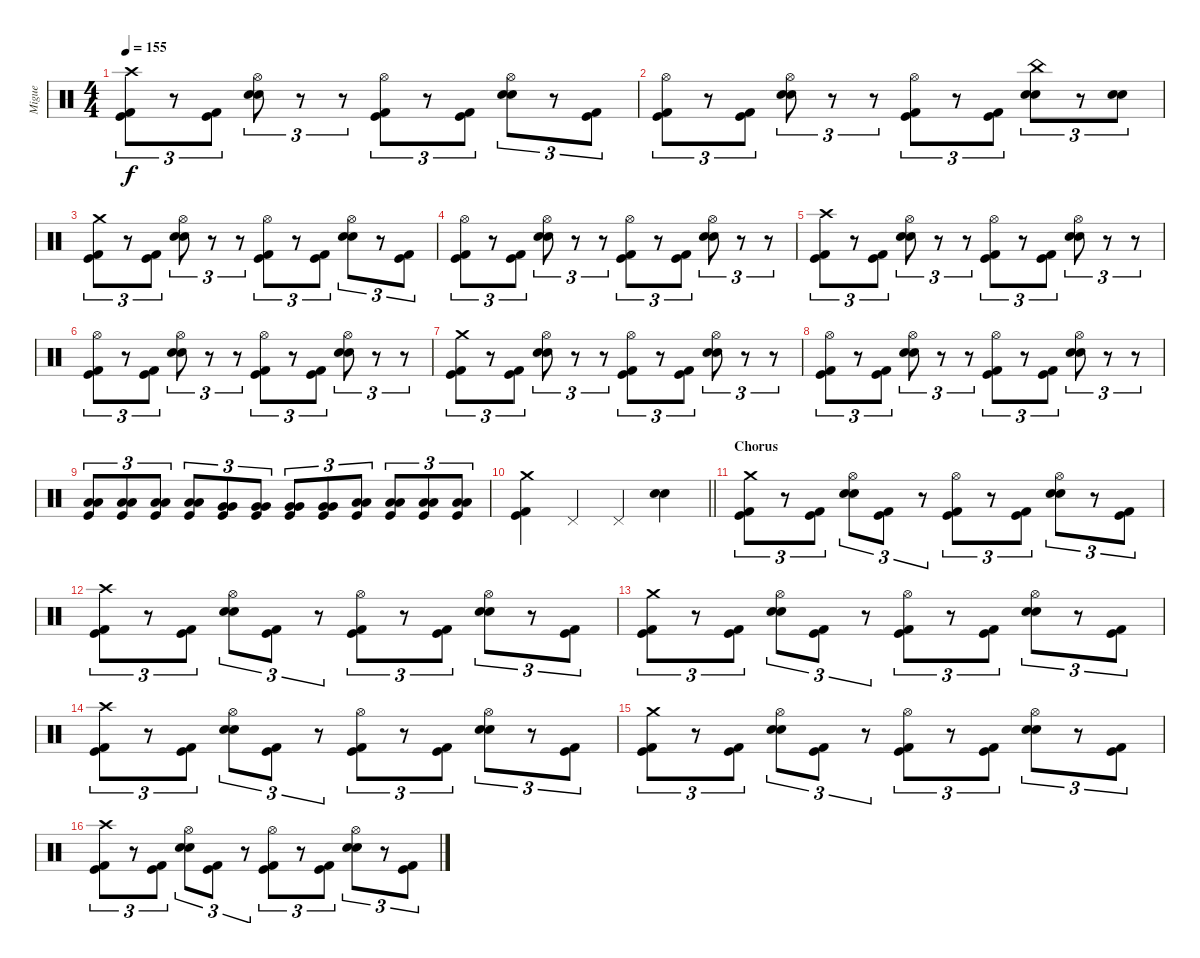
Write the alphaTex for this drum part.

\track ("Migue" "Migue") {instrument percussion}
\staff {score}
\articulation defaults
\ts (4 4)
\tempo 155
\clef neutral
\ks c
("Crash high (hit)" "Kick (hit) 2" "Kick (hit)").8{tu (3 2) dy f} r.8{tu (3 2)} ("Kick (hit) 2" "Kick (hit)").8{tu (3 2)} ("Hi-Hat (open)" "Snare (hit) 2" "Snare (hit) 2").8{tu (3 2)} r.8{tu (3 2)} r.8{tu (3 2)} ("Hi-Hat (open)" "Kick (hit) 2" "Kick (hit)").8{tu (3 2)} r.8{tu (3 2)} ("Kick (hit) 2" "Kick (hit)").8{tu (3 2)} ("Hi-Hat (open)" "Snare (hit) 2" "Snare (hit) 2").8{tu (3 2)} r.8{tu (3 2)} ("Kick (hit) 2" "Kick (hit)").8{tu (3 2)} |
("Hi-Hat (open)" "Kick (hit) 2" "Kick (hit)").8{tu (3 2)} r.8{tu (3 2)} ("Kick (hit) 2" "Kick (hit)").8{tu (3 2)} ("Hi-Hat (open)" "Snare (hit) 2" "Snare (hit) 2").8{tu (3 2)} r.8{tu (3 2)} r.8{tu (3 2)} ("Hi-Hat (open)" "Kick (hit) 2" "Kick (hit)").8{tu (3 2)} r.8{tu (3 2)} ("Kick (hit) 2" "Kick (hit)").8{tu (3 2)} ("China (hit)" "Snare (hit) 2" "Snare (hit) 2").8{tu (3 2)} r.8{tu (3 2)} ("Snare (hit) 2" "Snare (hit) 2").8{tu (3 2)} |
("Crash medium (hit)" "Kick (hit) 2" "Kick (hit)").8{tu (3 2)} r.8{tu (3 2)} ("Kick (hit) 2" "Kick (hit)").8{tu (3 2)} ("Hi-Hat (open)" "Snare (hit) 2" "Snare (hit) 2").8{tu (3 2)} r.8{tu (3 2)} r.8{tu (3 2)} ("Hi-Hat (open)" "Kick (hit) 2" "Kick (hit)").8{tu (3 2)} r.8{tu (3 2)} ("Kick (hit) 2" "Kick (hit)").8{tu (3 2)} ("Hi-Hat (open)" "Snare (hit) 2" "Snare (hit) 2").8{tu (3 2)} r.8{tu (3 2)} ("Kick (hit) 2" "Kick (hit)").8{tu (3 2)} |
("Hi-Hat (open)" "Kick (hit) 2" "Kick (hit)").8{tu (3 2)} r.8{tu (3 2)} ("Kick (hit) 2" "Kick (hit)").8{tu (3 2)} ("Hi-Hat (open)" "Snare (hit) 2" "Snare (hit) 2").8{tu (3 2)} r.8{tu (3 2)} r.8{tu (3 2)} ("Hi-Hat (open)" "Kick (hit) 2" "Kick (hit)").8{tu (3 2)} r.8{tu (3 2)} ("Kick (hit) 2" "Kick (hit)").8{tu (3 2)} ("Hi-Hat (open)" "Snare (hit) 2" "Snare (hit) 2").8{tu (3 2)} r.8{tu (3 2)} r.8{tu (3 2)} |
("Crash high (hit)" "Kick (hit) 2" "Kick (hit)").8{tu (3 2)} r.8{tu (3 2)} ("Kick (hit) 2" "Kick (hit)").8{tu (3 2)} ("Hi-Hat (open)" "Snare (hit) 2" "Snare (hit) 2").8{tu (3 2)} r.8{tu (3 2)} r.8{tu (3 2)} ("Hi-Hat (open)" "Kick (hit) 2" "Kick (hit)").8{tu (3 2)} r.8{tu (3 2)} ("Kick (hit) 2" "Kick (hit)").8{tu (3 2)} ("Hi-Hat (open)" "Snare (hit) 2" "Snare (hit) 2").8{tu (3 2)} r.8{tu (3 2)} r.8{tu (3 2)} |
("Hi-Hat (open)" "Kick (hit) 2" "Kick (hit)").8{tu (3 2)} r.8{tu (3 2)} ("Kick (hit) 2" "Kick (hit)").8{tu (3 2)} ("Hi-Hat (open)" "Snare (hit) 2" "Snare (hit) 2").8{tu (3 2)} r.8{tu (3 2)} r.8{tu (3 2)} ("Hi-Hat (open)" "Kick (hit) 2" "Kick (hit)").8{tu (3 2)} r.8{tu (3 2)} ("Kick (hit) 2" "Kick (hit)").8{tu (3 2)} ("Hi-Hat (open)" "Snare (hit) 2" "Snare (hit) 2").8{tu (3 2)} r.8{tu (3 2)} r.8{tu (3 2)} |
("Crash medium (hit)" "Kick (hit) 2" "Kick (hit)").8{tu (3 2)} r.8{tu (3 2)} ("Kick (hit) 2" "Kick (hit)").8{tu (3 2)} ("Hi-Hat (open)" "Snare (hit) 2" "Snare (hit) 2").8{tu (3 2)} r.8{tu (3 2)} r.8{tu (3 2)} ("Hi-Hat (open)" "Kick (hit) 2" "Kick (hit)").8{tu (3 2)} r.8{tu (3 2)} ("Kick (hit) 2" "Kick (hit)").8{tu (3 2)} ("Hi-Hat (open)" "Snare (hit) 2" "Snare (hit) 2").8{tu (3 2)} r.8{tu (3 2)} r.8{tu (3 2)} |
("Hi-Hat (open)" "Kick (hit) 2" "Kick (hit)").8{tu (3 2)} r.8{tu (3 2)} ("Kick (hit) 2" "Kick (hit)").8{tu (3 2)} ("Hi-Hat (open)" "Snare (hit) 2" "Snare (hit) 2").8{tu (3 2)} r.8{tu (3 2)} r.8{tu (3 2)} ("Hi-Hat (open)" "Kick (hit) 2" "Kick (hit)").8{tu (3 2)} r.8{tu (3 2)} ("Kick (hit) 2" "Kick (hit)").8{tu (3 2)} ("Hi-Hat (open)" "Snare (hit) 2" "Snare (hit) 2").8{tu (3 2)} r.8{tu (3 2)} r.8{tu (3 2)} |
("Low Tom (hit)" "Low Tom (hit)" "Kick (hit)").8{tu (3 2)} ("Low Tom (hit)" "Low Tom (hit)" "Kick (hit)").8{tu (3 2)} ("Low Tom (hit)" "Low Tom (hit)" "Kick (hit)").8{tu (3 2)} ("Low Tom (hit)" "Low Tom (hit)" "Kick (hit)").8{tu (3 2)} ("Very Low Tom (hit)" "Very Low Tom (hit)" "Kick (hit)").8{tu (3 2)} ("Very Low Tom (hit)" "Very Low Tom (hit)" "Kick (hit)").8{tu (3 2)} ("Very Low Tom (hit)" "Very Low Tom (hit)" "Kick (hit)").8{tu (3 2)} ("Very Low Tom (hit)" "Very Low Tom (hit)" "Kick (hit)").8{tu (3 2)} ("Low Floor Tom (hit)" "Low Floor Tom (hit)" "Kick (hit)").8{tu (3 2)} ("Low Floor Tom (hit)" "Low Floor Tom (hit)" "Kick (hit)").8{tu (3 2)} ("Low Floor Tom (hit)" "Low Floor Tom (hit)" "Kick (hit)").8{tu (3 2)} ("Low Floor Tom (hit)" "Low Floor Tom (hit)" "Kick (hit)").8{tu (3 2)} |
\barLineRight lightlight
("Crash medium (hit)" "Kick (hit) 2" "Kick (hit)").4 "Pedal Hi-Hat (hit)".4 "Pedal Hi-Hat (hit)".4 ("Snare (hit) 2" "Snare (hit) 2").4 |
\section ("" "Chorus")
("Crash medium (hit)" "Kick (hit) 2" "Kick (hit)").8{tu (3 2)} r.8{tu (3 2)} ("Kick (hit) 2" "Kick (hit)").8{tu (3 2)} ("Hi-Hat (open)" "Snare (hit) 2" "Snare (hit) 2").8{tu (3 2)} ("Kick (hit)" "Kick (hit) 2").8{tu (3 2)} r.8{tu (3 2)} ("Hi-Hat (open)" "Kick (hit) 2" "Kick (hit)").8{tu (3 2)} r.8{tu (3 2)} ("Kick (hit) 2" "Kick (hit)").8{tu (3 2)} ("Hi-Hat (open)" "Snare (hit) 2" "Snare (hit) 2").8{tu (3 2)} r.8{tu (3 2)} ("Kick (hit) 2" "Kick (hit)").8{tu (3 2)} |
("Crash high (hit)" "Kick (hit) 2" "Kick (hit)").8{tu (3 2)} r.8{tu (3 2)} ("Kick (hit) 2" "Kick (hit)").8{tu (3 2)} ("Hi-Hat (open)" "Snare (hit) 2" "Snare (hit) 2").8{tu (3 2)} ("Kick (hit) 2" "Kick (hit)").8{tu (3 2)} r.8{tu (3 2)} ("Hi-Hat (open)" "Kick (hit) 2" "Kick (hit)").8{tu (3 2)} r.8{tu (3 2)} ("Kick (hit) 2" "Kick (hit)").8{tu (3 2)} ("Hi-Hat (open)" "Snare (hit) 2" "Snare (hit) 2").8{tu (3 2)} r.8{tu (3 2)} ("Kick (hit) 2" "Kick (hit)").8{tu (3 2)} |
("Crash medium (hit)" "Kick (hit) 2" "Kick (hit)").8{tu (3 2)} r.8{tu (3 2)} ("Kick (hit) 2" "Kick (hit)").8{tu (3 2)} ("Hi-Hat (open)" "Snare (hit) 2" "Snare (hit) 2").8{tu (3 2)} ("Kick (hit) 2" "Kick (hit)").8{tu (3 2)} r.8{tu (3 2)} ("Hi-Hat (open)" "Kick (hit) 2" "Kick (hit)").8{tu (3 2)} r.8{tu (3 2)} ("Kick (hit) 2" "Kick (hit)").8{tu (3 2)} ("Hi-Hat (open)" "Snare (hit) 2" "Snare (hit) 2").8{tu (3 2)} r.8{tu (3 2)} ("Kick (hit) 2" "Kick (hit)").8{tu (3 2)} |
("Crash high (hit)" "Kick (hit) 2" "Kick (hit)").8{tu (3 2)} r.8{tu (3 2)} ("Kick (hit) 2" "Kick (hit)").8{tu (3 2)} ("Hi-Hat (open)" "Snare (hit) 2" "Snare (hit) 2").8{tu (3 2)} ("Kick (hit) 2" "Kick (hit)").8{tu (3 2)} r.8{tu (3 2)} ("Hi-Hat (open)" "Kick (hit) 2" "Kick (hit)").8{tu (3 2)} r.8{tu (3 2)} ("Kick (hit) 2" "Kick (hit)").8{tu (3 2)} ("Hi-Hat (open)" "Snare (hit) 2" "Snare (hit) 2").8{tu (3 2)} r.8{tu (3 2)} ("Kick (hit) 2" "Kick (hit)").8{tu (3 2)} |
("Crash medium (hit)" "Kick (hit) 2" "Kick (hit)").8{tu (3 2)} r.8{tu (3 2)} ("Kick (hit) 2" "Kick (hit)").8{tu (3 2)} ("Hi-Hat (open)" "Snare (hit) 2" "Snare (hit) 2").8{tu (3 2)} ("Kick (hit) 2" "Kick (hit)").8{tu (3 2)} r.8{tu (3 2)} ("Hi-Hat (open)" "Kick (hit) 2" "Kick (hit)").8{tu (3 2)} r.8{tu (3 2)} ("Kick (hit) 2" "Kick (hit)").8{tu (3 2)} ("Hi-Hat (open)" "Snare (hit) 2" "Snare (hit) 2").8{tu (3 2)} r.8{tu (3 2)} ("Kick (hit) 2" "Kick (hit)").8{tu (3 2)} |
("Crash high (hit)" "Kick (hit) 2" "Kick (hit)").8{tu (3 2)} r.8{tu (3 2)} ("Kick (hit) 2" "Kick (hit)").8{tu (3 2)} ("Hi-Hat (open)" "Snare (hit) 2" "Snare (hit) 2").8{tu (3 2)} ("Kick (hit) 2" "Kick (hit)").8{tu (3 2)} r.8{tu (3 2)} ("Hi-Hat (open)" "Kick (hit) 2" "Kick (hit)").8{tu (3 2)} r.8{tu (3 2)} ("Kick (hit) 2" "Kick (hit)").8{tu (3 2)} ("Hi-Hat (open)" "Snare (hit) 2" "Snare (hit) 2").8{tu (3 2)} r.8{tu (3 2)} ("Kick (hit) 2" "Kick (hit)").8{tu (3 2)}
